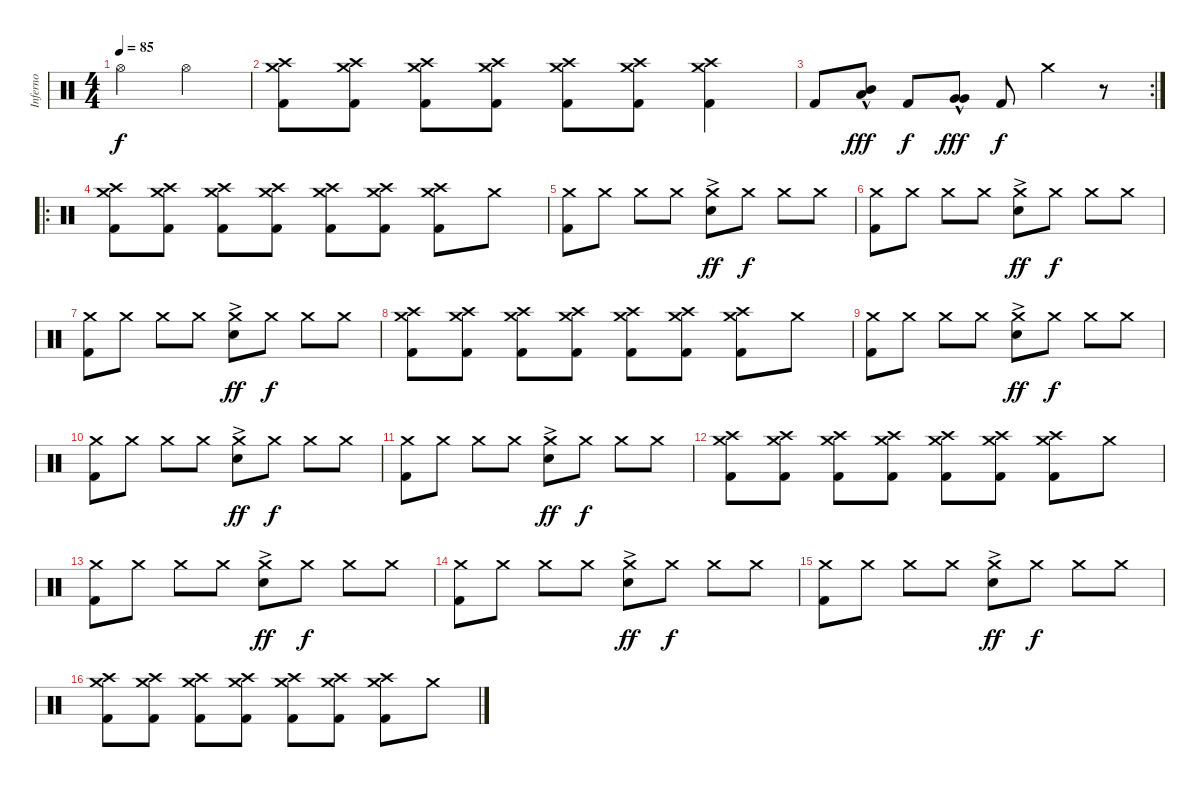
\track ("Inferno" "Inferno") {instrument percussion}
\staff {score}
\articulation defaults
\ts (4 4)
\tempo 85
\clef neutral
\ks c "Hi-Hat (open)".2{dy f} "Hi-Hat (open)".2
|
("Kick (hit) 2" "Crash high (hit)" "Crash medium (hit)").8 ("Kick (hit) 2" "Crash high (hit)" "Crash medium (hit)").8 ("Kick (hit) 2" "Crash high (hit)" "Crash medium (hit)").8 ("Kick (hit) 2" "Crash high (hit)" "Crash medium (hit)").8 ("Kick (hit) 2" "Crash high (hit)" "Crash medium (hit)").8 ("Kick (hit) 2" "Crash high (hit)" "Crash medium (hit)").8 ("Kick (hit) 2" "Crash high (hit)" "Crash medium (hit)").4 |
\rc 2 "Kick (hit) 2".8
("Low Tom (hit)"{hac} "Mid Tom (hit)"{hac}).8{dy fff} "Kick (hit) 2".8{dy f} ("Very Low Tom (hit)"{hac} "Very Low Tom (hit)"{hac}).8{dy fff} "Kick (hit) 2".8{dy f} "Crash medium (hit)".4 r.8 |
\ro
("Kick (hit) 2" "Crash high (hit)" "Crash medium (hit)").8 ("Kick (hit) 2" "Crash high (hit)" "Crash medium (hit)").8 ("Kick (hit) 2" "Crash high (hit)" "Crash medium (hit)").8 ("Kick (hit) 2" "Crash high (hit)" "Crash medium (hit)").8 ("Kick (hit) 2" "Crash high (hit)" "Crash medium (hit)").8 ("Kick (hit) 2" "Crash high (hit)" "Crash medium (hit)").8 ("Kick (hit) 2" "Crash high (hit)" "Crash medium (hit)").8 "Crash medium (hit)".8 |
("Kick (hit) 2" "Crash medium (hit)").8 "Crash medium (hit)".8 "Crash medium (hit)".8 "Crash medium (hit)".8 ("Electric Snare (hit)"{ac} "Crash medium (hit)").8{dy ff} "Crash medium (hit)".8{dy f} "Crash medium (hit)".8 "Crash medium (hit)".8 |
("Kick (hit) 2" "Crash medium (hit)").8 "Crash medium (hit)".8 "Crash medium (hit)".8 "Crash medium (hit)".8 ("Electric Snare (hit)"{ac} "Crash medium (hit)").8{dy ff} "Crash medium (hit)".8{dy f} "Crash medium (hit)".8 "Crash medium (hit)".8 |
("Kick (hit) 2" "Crash medium (hit)").8 "Crash medium (hit)".8 "Crash medium (hit)".8 "Crash medium (hit)".8 ("Electric Snare (hit)"{ac} "Crash medium (hit)").8{dy ff} "Crash medium (hit)".8{dy f} "Crash medium (hit)".8 "Crash medium (hit)".8 |
("Kick (hit) 2" "Crash high (hit)" "Crash medium (hit)").8 ("Kick (hit) 2" "Crash high (hit)" "Crash medium (hit)").8 ("Kick (hit) 2" "Crash high (hit)" "Crash medium (hit)").8 ("Kick (hit) 2" "Crash high (hit)" "Crash medium (hit)").8 ("Kick (hit) 2" "Crash high (hit)" "Crash medium (hit)").8 ("Kick (hit) 2" "Crash high (hit)" "Crash medium (hit)").8 ("Kick (hit) 2" "Crash high (hit)" "Crash medium (hit)").8 "Crash medium (hit)".8 |
("Kick (hit) 2" "Crash medium (hit)").8 "Crash medium (hit)".8 "Crash medium (hit)".8 "Crash medium (hit)".8 ("Electric Snare (hit)"{ac} "Crash medium (hit)").8{dy ff} "Crash medium (hit)".8{dy f} "Crash medium (hit)".8 "Crash medium (hit)".8 |
("Kick (hit) 2" "Crash medium (hit)").8 "Crash medium (hit)".8 "Crash medium (hit)".8 "Crash medium (hit)".8 ("Electric Snare (hit)"{ac} "Crash medium (hit)").8{dy ff} "Crash medium (hit)".8{dy f} "Crash medium (hit)".8 "Crash medium (hit)".8 |
("Kick (hit) 2" "Crash medium (hit)").8 "Crash medium (hit)".8 "Crash medium (hit)".8 "Crash medium (hit)".8 ("Electric Snare (hit)"{ac} "Crash medium (hit)").8{dy ff} "Crash medium (hit)".8{dy f} "Crash medium (hit)".8 "Crash medium (hit)".8 |
("Kick (hit) 2" "Crash high (hit)" "Crash medium (hit)").8 ("Kick (hit) 2" "Crash high (hit)" "Crash medium (hit)").8 ("Kick (hit) 2" "Crash high (hit)" "Crash medium (hit)").8 ("Kick (hit) 2" "Crash high (hit)" "Crash medium (hit)").8 ("Kick (hit) 2" "Crash high (hit)" "Crash medium (hit)").8 ("Kick (hit) 2" "Crash high (hit)" "Crash medium (hit)").8 ("Kick (hit) 2" "Crash high (hit)" "Crash medium (hit)").8 "Crash medium (hit)".8 |
("Kick (hit) 2" "Crash medium (hit)").8 "Crash medium (hit)".8 "Crash medium (hit)".8 "Crash medium (hit)".8 ("Electric Snare (hit)"{ac} "Crash medium (hit)").8{dy ff} "Crash medium (hit)".8{dy f} "Crash medium (hit)".8 "Crash medium (hit)".8 |
("Kick (hit) 2" "Crash medium (hit)").8 "Crash medium (hit)".8 "Crash medium (hit)".8 "Crash medium (hit)".8 ("Electric Snare (hit)"{ac} "Crash medium (hit)").8{dy ff} "Crash medium (hit)".8{dy f} "Crash medium (hit)".8 "Crash medium (hit)".8 |
("Kick (hit) 2" "Crash medium (hit)").8 "Crash medium (hit)".8 "Crash medium (hit)".8 "Crash medium (hit)".8 ("Electric Snare (hit)"{ac} "Crash medium (hit)").8{dy ff} "Crash medium (hit)".8{dy f} "Crash medium (hit)".8 "Crash medium (hit)".8 |
("Kick (hit) 2" "Crash high (hit)" "Crash medium (hit)").8 ("Kick (hit) 2" "Crash high (hit)" "Crash medium (hit)").8 ("Kick (hit) 2" "Crash high (hit)" "Crash medium (hit)").8 ("Kick (hit) 2" "Crash high (hit)" "Crash medium (hit)").8 ("Kick (hit) 2" "Crash high (hit)" "Crash medium (hit)").8 ("Kick (hit) 2" "Crash high (hit)" "Crash medium (hit)").8 ("Kick (hit) 2" "Crash high (hit)" "Crash medium (hit)").8 "Crash medium (hit)".8
